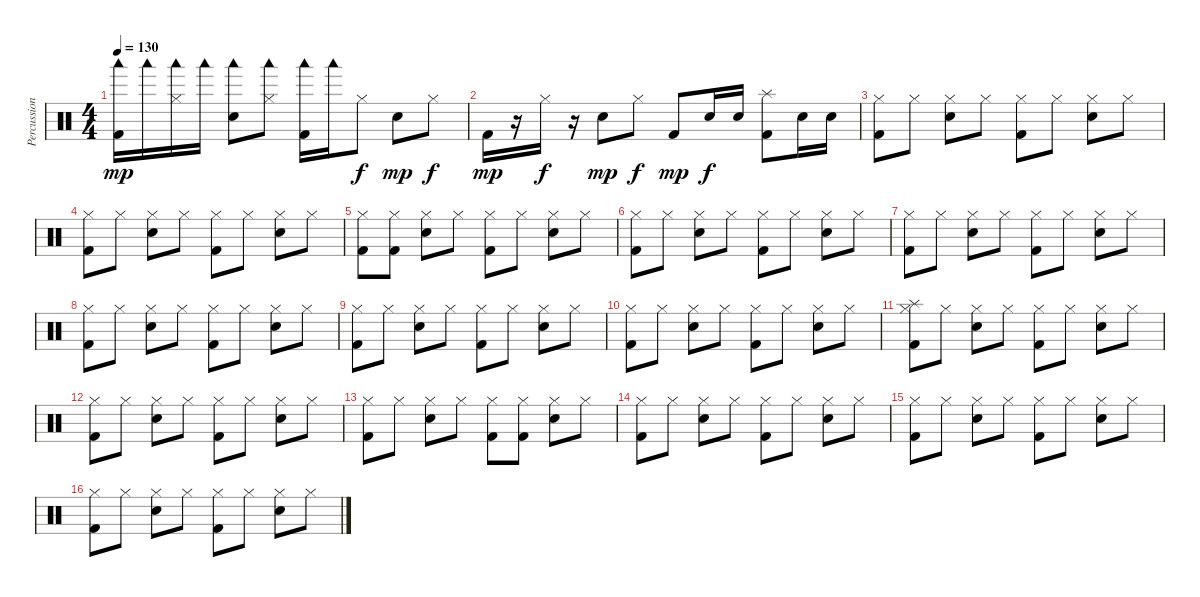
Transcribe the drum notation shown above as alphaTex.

\track ("Percussion" "Percussion") {instrument percussion}
\staff {score}
\articulation defaults
\ts (4 4)
\tempo 130
\clef neutral
\ks c
("Woodblock low (hit)" "Kick (hit) 2").16{dy mp} "Woodblock low (hit)".16 ("Woodblock low (hit)" "Hi-Hat (closed)").16 "Woodblock low (hit)".16 ("Woodblock low (hit)" "Electric Snare (hit)").8 ("Woodblock low (hit)" "Hi-Hat (closed)").8 ("Woodblock low (hit)" "Kick (hit) 2").16 "Woodblock low (hit)".16 "Hi-Hat (closed)".8{dy f} "Electric Snare (hit)".8{dy mp} "Hi-Hat (closed)".8{dy f} |
"Kick (hit) 2".16{dy mp} r.16 "Hi-Hat (closed)".16{dy f} r.16 "Electric Snare (hit)".8{dy mp} "Hi-Hat (closed)".8{dy f} "Kick (hit) 2".8{dy mp} "Electric Snare (hit)".16{dy f} "Electric Snare (hit)".16 ("Splash (hit)" "Kick (hit) 2").8 "Electric Snare (hit)".16 "Electric Snare (hit)".16 |
("Hi-Hat (closed)" "Kick (hit) 2").8 "Hi-Hat (closed)".8 ("Hi-Hat (closed)" "Electric Snare (hit)").8 "Hi-Hat (closed)".8 ("Hi-Hat (closed)" "Kick (hit) 2").8 "Hi-Hat (closed)".8 ("Hi-Hat (closed)" "Electric Snare (hit)").8 "Hi-Hat (closed)".8 |
("Hi-Hat (closed)" "Kick (hit) 2").8 "Hi-Hat (closed)".8 ("Hi-Hat (closed)" "Electric Snare (hit)").8 "Hi-Hat (closed)".8 ("Hi-Hat (closed)" "Kick (hit) 2").8 "Hi-Hat (closed)".8 ("Hi-Hat (closed)" "Electric Snare (hit)").8 "Hi-Hat (closed)".8 |
("Hi-Hat (closed)" "Kick (hit) 2").8 ("Hi-Hat (closed)" "Kick (hit) 2").8 ("Hi-Hat (closed)" "Electric Snare (hit)").8 "Hi-Hat (closed)".8 ("Hi-Hat (closed)" "Kick (hit) 2").8 "Hi-Hat (closed)".8 ("Hi-Hat (closed)" "Electric Snare (hit)").8 "Hi-Hat (closed)".8 |
("Hi-Hat (closed)" "Kick (hit) 2").8 "Hi-Hat (closed)".8 ("Hi-Hat (closed)" "Electric Snare (hit)").8 "Hi-Hat (closed)".8 ("Hi-Hat (closed)" "Kick (hit) 2").8 "Hi-Hat (closed)".8 ("Hi-Hat (closed)" "Electric Snare (hit)").8 "Hi-Hat (closed)".8 |
("Hi-Hat (closed)" "Kick (hit) 2").8 "Hi-Hat (closed)".8 ("Hi-Hat (closed)" "Electric Snare (hit)").8 "Hi-Hat (closed)".8 ("Hi-Hat (closed)" "Kick (hit) 2").8 "Hi-Hat (closed)".8 ("Hi-Hat (closed)" "Electric Snare (hit)").8 "Hi-Hat (closed)".8 |
("Hi-Hat (closed)" "Kick (hit) 2").8 "Hi-Hat (closed)".8 ("Hi-Hat (closed)" "Electric Snare (hit)").8 "Hi-Hat (closed)".8 ("Hi-Hat (closed)" "Kick (hit) 2").8 "Hi-Hat (closed)".8 ("Hi-Hat (closed)" "Electric Snare (hit)").8 "Hi-Hat (closed)".8 |
("Hi-Hat (closed)" "Kick (hit) 2").8 "Hi-Hat (closed)".8 ("Hi-Hat (closed)" "Electric Snare (hit)").8 "Hi-Hat (closed)".8 ("Hi-Hat (closed)" "Kick (hit) 2").8 "Hi-Hat (closed)".8 ("Hi-Hat (closed)" "Electric Snare (hit)").8 "Hi-Hat (closed)".8 |
("Hi-Hat (closed)" "Kick (hit) 2").8 "Hi-Hat (closed)".8 ("Hi-Hat (closed)" "Electric Snare (hit)").8 "Hi-Hat (closed)".8 ("Hi-Hat (closed)" "Kick (hit) 2").8 "Hi-Hat (closed)".8 ("Hi-Hat (closed)" "Electric Snare (hit)").8 "Hi-Hat (closed)".8 |
("Splash (hit)" "Hi-Hat (closed)" "Kick (hit) 2").8 "Hi-Hat (closed)".8 ("Hi-Hat (closed)" "Electric Snare (hit)").8 "Hi-Hat (closed)".8 ("Hi-Hat (closed)" "Kick (hit) 2").8 "Hi-Hat (closed)".8 ("Hi-Hat (closed)" "Electric Snare (hit)").8 "Hi-Hat (closed)".8 |
("Hi-Hat (closed)" "Kick (hit) 2").8 "Hi-Hat (closed)".8 ("Hi-Hat (closed)" "Electric Snare (hit)").8 "Hi-Hat (closed)".8 ("Hi-Hat (closed)" "Kick (hit) 2").8 "Hi-Hat (closed)".8 ("Hi-Hat (closed)" "Electric Snare (hit)").8 "Hi-Hat (closed)".8 |
("Hi-Hat (closed)" "Kick (hit) 2").8 "Hi-Hat (closed)".8 ("Hi-Hat (closed)" "Electric Snare (hit)").8 "Hi-Hat (closed)".8 ("Hi-Hat (closed)" "Kick (hit) 2").8 ("Hi-Hat (closed)" "Kick (hit) 2").8 ("Hi-Hat (closed)" "Electric Snare (hit)").8 "Hi-Hat (closed)".8 |
("Hi-Hat (closed)" "Kick (hit) 2").8 "Hi-Hat (closed)".8 ("Hi-Hat (closed)" "Electric Snare (hit)").8 "Hi-Hat (closed)".8 ("Hi-Hat (closed)" "Kick (hit) 2").8 "Hi-Hat (closed)".8 ("Hi-Hat (closed)" "Electric Snare (hit)").8 "Hi-Hat (closed)".8 |
("Hi-Hat (closed)" "Kick (hit) 2").8 "Hi-Hat (closed)".8 ("Hi-Hat (closed)" "Electric Snare (hit)").8 "Hi-Hat (closed)".8 ("Hi-Hat (closed)" "Kick (hit) 2").8 "Hi-Hat (closed)".8 ("Hi-Hat (closed)" "Electric Snare (hit)").8 "Hi-Hat (closed)".8 |
("Hi-Hat (closed)" "Kick (hit) 2").8 "Hi-Hat (closed)".8 ("Hi-Hat (closed)" "Electric Snare (hit)").8 "Hi-Hat (closed)".8 ("Hi-Hat (closed)" "Kick (hit) 2").8 "Hi-Hat (closed)".8 ("Hi-Hat (closed)" "Electric Snare (hit)").8 "Hi-Hat (closed)".8
